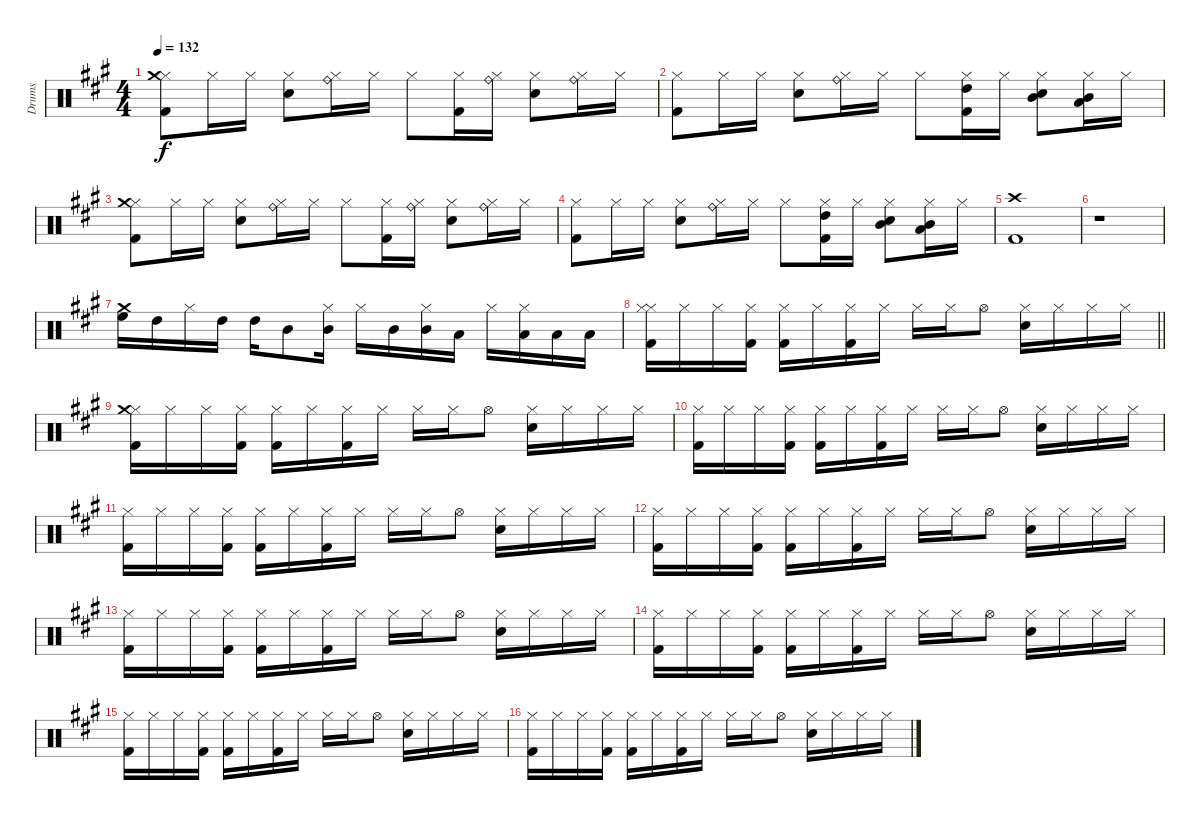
\track ("Drums" "Drums") {instrument percussion}
\staff {score}
\articulation defaults
\ts (4 4)
\tempo 132
\clef neutral
\ks a
("Kick (hit) 2" "Hi-Hat (closed)" "Crash medium (hit)").8{dy f} "Hi-Hat (closed)".16 "Hi-Hat (closed)".16 ("Snare (hit) 2" "Hi-Hat (closed)").8 ("Hi-Hat (closed)" "Ride (bell)").16 "Hi-Hat (closed)".16 "Hi-Hat (closed)".8 ("Kick (hit) 2" "Hi-Hat (closed)").16 ("Hi-Hat (closed)" "Ride (bell)").16 ("Snare (hit) 2" "Hi-Hat (closed)").8 ("Hi-Hat (closed)" "Ride (bell)").16 "Hi-Hat (closed)".16 |
("Kick (hit) 2" "Hi-Hat (closed)").8 "Hi-Hat (closed)".16 "Hi-Hat (closed)".16 ("Snare (hit) 2" "Hi-Hat (closed)").8 ("Hi-Hat (closed)" "Ride (bell)").16 "Hi-Hat (closed)".16 "Hi-Hat (closed)".8 ("Kick (hit) 2" "Hi-Hat (closed)" "High Tom (hit)").16 "Hi-Hat (closed)".16 ("Snare (hit) 2" "Hi-Hat (closed)" "Mid Tom (hit)").8 ("Hi-Hat (closed)" "Low Tom (hit)" "Mid Tom (hit)").16 "Hi-Hat (closed)".16 |
("Kick (hit) 2" "Hi-Hat (closed)" "Crash medium (hit)").8 "Hi-Hat (closed)".16 "Hi-Hat (closed)".16 ("Snare (hit) 2" "Hi-Hat (closed)").8 ("Hi-Hat (closed)" "Ride (bell)").16 "Hi-Hat (closed)".16 "Hi-Hat (closed)".8 ("Kick (hit) 2" "Hi-Hat (closed)").16 ("Hi-Hat (closed)" "Ride (bell)").16 ("Snare (hit) 2" "Hi-Hat (closed)").8 ("Hi-Hat (closed)" "Ride (bell)").16 "Hi-Hat (closed)".16 |
("Kick (hit) 2" "Hi-Hat (closed)").8 "Hi-Hat (closed)".16 "Hi-Hat (closed)".16 ("Snare (hit) 2" "Hi-Hat (closed)").8 ("Hi-Hat (closed)" "Ride (bell)").16 "Hi-Hat (closed)".16 "Hi-Hat (closed)".8 ("Kick (hit) 2" "Hi-Hat (closed)" "High Tom (hit)").16 "Hi-Hat (closed)".16 ("Snare (hit) 2" "Hi-Hat (closed)" "Mid Tom (hit)").8 ("Hi-Hat (closed)" "Low Tom (hit)" "Mid Tom (hit)").16 "Hi-Hat (closed)".16 |
("Crash high (hit)" "Kick (hit) 2").1 |
r.1 |
("High Floor Tom (hit)" "Crash medium (hit)").16 "High Tom (hit)".16 "Hi-Hat (closed)".16 "High Tom (hit)".16 "High Tom (hit)".16 "Mid Tom (hit)".8 ("Hi-Hat (closed)" "Mid Tom (hit)").16 "Hi-Hat (closed)".16 "Mid Tom (hit)".16 ("Hi-Hat (closed)" "Mid Tom (hit)").16 "Low Tom (hit)".16 "Hi-Hat (closed)".16 ("Hi-Hat (closed)" "Low Tom (hit)").16 "Low Tom (hit)".16 "Low Tom (hit)".16 |
\barLineRight lightlight
("Hi-Hat (closed)" "Hi-Hat (closed)" "Kick (hit) 2").16 "Hi-Hat (closed)".16 "Hi-Hat (closed)".16 ("Kick (hit) 2" "Hi-Hat (closed)").16 ("Kick (hit) 2" "Hi-Hat (closed)").16 "Hi-Hat (closed)".16 ("Kick (hit) 2" "Hi-Hat (closed)").16 "Hi-Hat (closed)".16 "Hi-Hat (closed)".16 "Hi-Hat (closed)".16 "Hi-Hat (open)".8 ("Snare (hit) 2" "Hi-Hat (closed)").16 "Hi-Hat (closed)".16 "Hi-Hat (closed)".16 "Hi-Hat (closed)".16 |
("Kick (hit) 2" "Hi-Hat (closed)" "Crash medium (hit)").16 "Hi-Hat (closed)".16 "Hi-Hat (closed)".16 ("Kick (hit) 2" "Hi-Hat (closed)").16 ("Kick (hit) 2" "Hi-Hat (closed)").16 "Hi-Hat (closed)".16 ("Kick (hit) 2" "Hi-Hat (closed)").16 "Hi-Hat (closed)".16 "Hi-Hat (closed)".16 "Hi-Hat (closed)".16 "Hi-Hat (open)".8 ("Snare (hit) 2" "Hi-Hat (closed)").16 "Hi-Hat (closed)".16 "Hi-Hat (closed)".16 "Hi-Hat (closed)".16 |
("Kick (hit) 2" "Hi-Hat (closed)").16 "Hi-Hat (closed)".16 "Hi-Hat (closed)".16 ("Kick (hit) 2" "Hi-Hat (closed)").16 ("Kick (hit) 2" "Hi-Hat (closed)").16 "Hi-Hat (closed)".16 ("Kick (hit) 2" "Hi-Hat (closed)").16 "Hi-Hat (closed)".16 "Hi-Hat (closed)".16 "Hi-Hat (closed)".16 "Hi-Hat (open)".8 ("Snare (hit) 2" "Hi-Hat (closed)").16 "Hi-Hat (closed)".16 "Hi-Hat (closed)".16 "Hi-Hat (closed)".16 |
("Kick (hit) 2" "Hi-Hat (closed)").16 "Hi-Hat (closed)".16 "Hi-Hat (closed)".16 ("Kick (hit) 2" "Hi-Hat (closed)").16 ("Kick (hit) 2" "Hi-Hat (closed)").16 "Hi-Hat (closed)".16 ("Kick (hit) 2" "Hi-Hat (closed)").16 "Hi-Hat (closed)".16 "Hi-Hat (closed)".16 "Hi-Hat (closed)".16 "Hi-Hat (open)".8 ("Snare (hit) 2" "Hi-Hat (closed)").16 "Hi-Hat (closed)".16 "Hi-Hat (closed)".16 "Hi-Hat (closed)".16 |
("Kick (hit) 2" "Hi-Hat (closed)").16 "Hi-Hat (closed)".16 "Hi-Hat (closed)".16 ("Kick (hit) 2" "Hi-Hat (closed)").16 ("Kick (hit) 2" "Hi-Hat (closed)").16 "Hi-Hat (closed)".16 ("Kick (hit) 2" "Hi-Hat (closed)").16 "Hi-Hat (closed)".16 "Hi-Hat (closed)".16 "Hi-Hat (closed)".16 "Hi-Hat (open)".8 ("Snare (hit) 2" "Hi-Hat (closed)").16 "Hi-Hat (closed)".16 "Hi-Hat (closed)".16 "Hi-Hat (closed)".16 |
("Kick (hit) 2" "Hi-Hat (closed)").16 "Hi-Hat (closed)".16 "Hi-Hat (closed)".16 ("Kick (hit) 2" "Hi-Hat (closed)").16 ("Kick (hit) 2" "Hi-Hat (closed)").16 "Hi-Hat (closed)".16 ("Kick (hit) 2" "Hi-Hat (closed)").16 "Hi-Hat (closed)".16 "Hi-Hat (closed)".16 "Hi-Hat (closed)".16 "Hi-Hat (open)".8 ("Snare (hit) 2" "Hi-Hat (closed)").16 "Hi-Hat (closed)".16 "Hi-Hat (closed)".16 "Hi-Hat (closed)".16 |
("Kick (hit) 2" "Hi-Hat (closed)").16 "Hi-Hat (closed)".16 "Hi-Hat (closed)".16 ("Kick (hit) 2" "Hi-Hat (closed)").16 ("Kick (hit) 2" "Hi-Hat (closed)").16 "Hi-Hat (closed)".16 ("Kick (hit) 2" "Hi-Hat (closed)").16 "Hi-Hat (closed)".16 "Hi-Hat (closed)".16 "Hi-Hat (closed)".16 "Hi-Hat (open)".8 ("Snare (hit) 2" "Hi-Hat (closed)").16 "Hi-Hat (closed)".16 "Hi-Hat (closed)".16 "Hi-Hat (closed)".16 |
("Kick (hit) 2" "Hi-Hat (closed)").16 "Hi-Hat (closed)".16 "Hi-Hat (closed)".16 ("Kick (hit) 2" "Hi-Hat (closed)").16 ("Kick (hit) 2" "Hi-Hat (closed)").16 "Hi-Hat (closed)".16 ("Kick (hit) 2" "Hi-Hat (closed)").16 "Hi-Hat (closed)".16 "Hi-Hat (closed)".16 "Hi-Hat (closed)".16 "Hi-Hat (open)".8 ("Snare (hit) 2" "Hi-Hat (closed)").16 "Hi-Hat (closed)".16 "Hi-Hat (closed)".16 "Hi-Hat (closed)".16 |
("Kick (hit) 2" "Hi-Hat (closed)").16 "Hi-Hat (closed)".16 "Hi-Hat (closed)".16 ("Kick (hit) 2" "Hi-Hat (closed)").16 ("Kick (hit) 2" "Hi-Hat (closed)").16 "Hi-Hat (closed)".16 ("Kick (hit) 2" "Hi-Hat (closed)").16 "Hi-Hat (closed)".16 "Hi-Hat (closed)".16 "Hi-Hat (closed)".16 "Hi-Hat (open)".8 ("Snare (hit) 2" "Hi-Hat (closed)").16 "Hi-Hat (closed)".16 "Hi-Hat (closed)".16 "Hi-Hat (closed)".16
